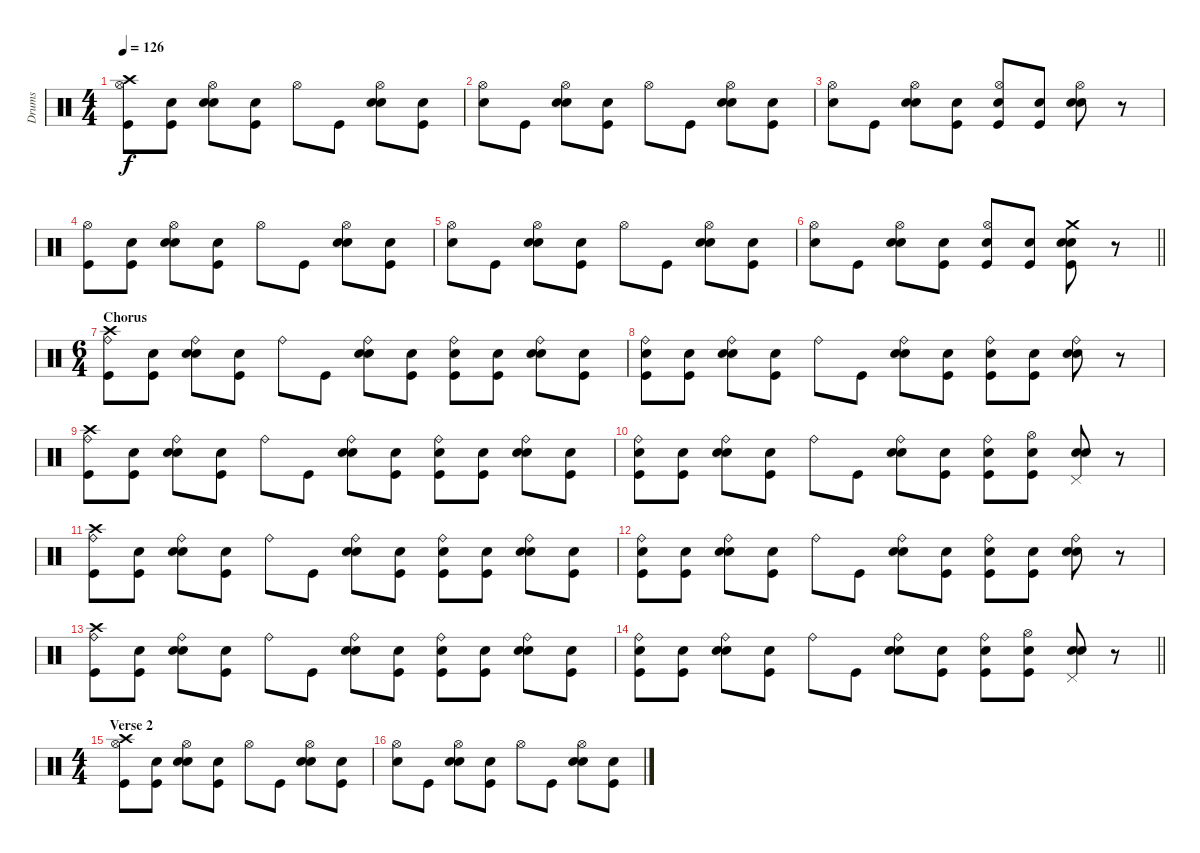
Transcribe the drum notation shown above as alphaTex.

\track ("Drums" "Drums") {instrument percussion}
\staff {score}
\articulation defaults
\ts (4 4)
\tempo 126
\clef neutral
\ks c
("Kick (hit)" "Hi-Hat (open)" "Crash high (hit)").8{dy f} ("Snare (hit)" "Kick (hit)").8 ("Snare (hit)" "Electric Snare (hit)" "Hi-Hat (open)").8 ("Snare (hit)" "Kick (hit)").8 "Hi-Hat (open)".8 "Kick (hit)".8 ("Snare (hit)" "Hi-Hat (open)" "Electric Snare (hit)").8 ("Snare (hit)" "Kick (hit)").8 |
("Snare (hit)" "Hi-Hat (open)").8 "Kick (hit)".8 ("Snare (hit)" "Electric Snare (hit)" "Hi-Hat (open)").8 ("Snare (hit)" "Kick (hit)").8 "Hi-Hat (open)".8 "Kick (hit)".8 ("Snare (hit)" "Electric Snare (hit)" "Hi-Hat (open)").8 ("Snare (hit)" "Kick (hit)").8 |
("Snare (hit)" "Hi-Hat (open)").8 "Kick (hit)".8 ("Snare (hit)" "Hi-Hat (open)" "Electric Snare (hit)").8 ("Snare (hit)" "Kick (hit)").8 ("Snare (hit)" "Hi-Hat (open)" "Kick (hit)").8 ("Snare (hit)" "Kick (hit)").8 ("Snare (hit)" "Hi-Hat (open)" "Electric Snare (hit)").8 r.8 |
("Kick (hit)" "Hi-Hat (open)").8 ("Snare (hit)" "Kick (hit)").8 ("Snare (hit)" "Electric Snare (hit)" "Hi-Hat (open)").8 ("Snare (hit)" "Kick (hit)").8 "Hi-Hat (open)".8 "Kick (hit)".8 ("Snare (hit)" "Electric Snare (hit)" "Hi-Hat (open)").8 ("Snare (hit)" "Kick (hit)").8 |
("Snare (hit)" "Hi-Hat (open)").8 "Kick (hit)".8 ("Snare (hit)" "Hi-Hat (open)" "Electric Snare (hit)").8 ("Snare (hit)" "Kick (hit)").8 "Hi-Hat (open)".8 "Kick (hit)".8 ("Snare (hit)" "Hi-Hat (open)" "Electric Snare (hit)").8 ("Snare (hit)" "Kick (hit)").8 |
\barLineRight lightlight
("Snare (hit)" "Hi-Hat (open)").8 "Kick (hit)".8 ("Snare (hit)" "Hi-Hat (open)" "Electric Snare (hit)").8 ("Snare (hit)" "Kick (hit)").8 ("Snare (hit)" "Hi-Hat (open)" "Kick (hit)").8 ("Snare (hit)" "Kick (hit)").8 ("Snare (hit)" "Electric Snare (hit)" "Kick (hit)" "Crash medium (hit)").8 r.8 |
\ts (6 4)
\section ("" "Chorus")
("Ride (bell)" "Kick (hit)" "Crash high (hit)").8 ("Snare (hit)" "Kick (hit)").8 ("Snare (hit)" "Electric Snare (hit)" "Ride (bell)").8 ("Snare (hit)" "Kick (hit)").8 "Ride (bell)".8 "Kick (hit)".8 ("Snare (hit)" "Ride (bell)" "Electric Snare (hit)").8 ("Snare (hit)" "Kick (hit)").8 ("Snare (hit)" "Kick (hit)" "Ride (bell)").8 ("Snare (hit)" "Kick (hit)").8 ("Snare (hit)" "Electric Snare (hit)" "Ride (bell)").8 ("Snare (hit)" "Kick (hit)").8 |
("Snare (hit)" "Ride (bell)" "Kick (hit)").8 ("Snare (hit)" "Kick (hit)").8 ("Snare (hit)" "Electric Snare (hit)" "Ride (bell)").8 ("Snare (hit)" "Kick (hit)").8 "Ride (bell)".8 "Kick (hit)".8 ("Snare (hit)" "Ride (bell)" "Electric Snare (hit)").8 ("Snare (hit)" "Kick (hit)").8 ("Snare (hit)" "Kick (hit)" "Ride (bell)").8 ("Snare (hit)" "Kick (hit)").8 ("Snare (hit)" "Ride (bell)" "Electric Snare (hit)").8 r.8 |
("Ride (bell)" "Kick (hit)" "Crash high (hit)").8 ("Snare (hit)" "Kick (hit)").8 ("Snare (hit)" "Ride (bell)" "Electric Snare (hit)").8 ("Snare (hit)" "Kick (hit)").8 "Ride (bell)".8 "Kick (hit)".8 ("Snare (hit)" "Electric Snare (hit)" "Ride (bell)").8 ("Snare (hit)" "Kick (hit)").8 ("Snare (hit)" "Kick (hit)" "Ride (bell)").8 ("Snare (hit)" "Kick (hit)").8 ("Snare (hit)" "Electric Snare (hit)" "Ride (bell)").8 ("Snare (hit)" "Kick (hit)").8 |
("Snare (hit)" "Ride (bell)" "Kick (hit)").8 ("Snare (hit)" "Kick (hit)").8 ("Snare (hit)" "Electric Snare (hit)" "Ride (bell)").8 ("Snare (hit)" "Kick (hit)").8 "Ride (bell)".8 "Kick (hit)".8 ("Snare (hit)" "Electric Snare (hit)" "Ride (bell)").8 ("Snare (hit)" "Kick (hit)").8 ("Snare (hit)" "Kick (hit)" "Ride (bell)").8 ("Snare (hit)" "Kick (hit)" "Hi-Hat (open)").8 ("Snare (hit)" "Electric Snare (hit)" "Pedal Hi-Hat (hit)").8 r.8 |
("Ride (bell)" "Kick (hit)" "Crash high (hit)").8 ("Snare (hit)" "Kick (hit)").8 ("Snare (hit)" "Ride (bell)" "Electric Snare (hit)").8 ("Snare (hit)" "Kick (hit)").8 "Ride (bell)".8 "Kick (hit)".8 ("Snare (hit)" "Ride (bell)" "Electric Snare (hit)").8 ("Snare (hit)" "Kick (hit)").8 ("Snare (hit)" "Ride (bell)" "Kick (hit)").8 ("Snare (hit)" "Kick (hit)").8 ("Snare (hit)" "Electric Snare (hit)" "Ride (bell)").8 ("Snare (hit)" "Kick (hit)").8 |
("Snare (hit)" "Ride (bell)" "Kick (hit)").8 ("Snare (hit)" "Kick (hit)").8 ("Snare (hit)" "Ride (bell)" "Electric Snare (hit)").8 ("Snare (hit)" "Kick (hit)").8 "Ride (bell)".8 "Kick (hit)".8 ("Snare (hit)" "Electric Snare (hit)" "Ride (bell)").8 ("Snare (hit)" "Kick (hit)").8 ("Snare (hit)" "Ride (bell)" "Kick (hit)").8 ("Snare (hit)" "Kick (hit)").8 ("Snare (hit)" "Ride (bell)" "Electric Snare (hit)").8 r.8 |
("Ride (bell)" "Kick (hit)" "Crash high (hit)").8 ("Snare (hit)" "Kick (hit)").8 ("Snare (hit)" "Ride (bell)" "Electric Snare (hit)").8 ("Snare (hit)" "Kick (hit)").8 "Ride (bell)".8 "Kick (hit)".8 ("Snare (hit)" "Ride (bell)" "Electric Snare (hit)").8 ("Snare (hit)" "Kick (hit)").8 ("Snare (hit)" "Kick (hit)" "Ride (bell)").8 ("Snare (hit)" "Kick (hit)").8 ("Snare (hit)" "Electric Snare (hit)" "Ride (bell)").8 ("Snare (hit)" "Kick (hit)").8 |
\barLineRight lightlight
("Snare (hit)" "Ride (bell)" "Kick (hit)").8 ("Snare (hit)" "Kick (hit)").8 ("Snare (hit)" "Electric Snare (hit)" "Ride (bell)").8 ("Snare (hit)" "Kick (hit)").8 "Ride (bell)".8 "Kick (hit)".8 ("Snare (hit)" "Ride (bell)" "Electric Snare (hit)").8 ("Snare (hit)" "Kick (hit)").8 ("Snare (hit)" "Ride (bell)" "Kick (hit)").8 ("Snare (hit)" "Kick (hit)" "Hi-Hat (open)").8 ("Snare (hit)" "Electric Snare (hit)" "Pedal Hi-Hat (hit)").8 r.8 |
\ts (4 4)
\section ("" "Verse 2")
("Kick (hit)" "Hi-Hat (open)" "Crash high (hit)").8 ("Snare (hit)" "Kick (hit)").8 ("Snare (hit)" "Hi-Hat (open)" "Electric Snare (hit)").8 ("Snare (hit)" "Kick (hit)").8 "Hi-Hat (open)".8 "Kick (hit)".8 ("Snare (hit)" "Electric Snare (hit)" "Hi-Hat (open)").8 ("Snare (hit)" "Kick (hit)").8 |
("Snare (hit)" "Hi-Hat (open)").8 "Kick (hit)".8 ("Snare (hit)" "Electric Snare (hit)" "Hi-Hat (open)").8 ("Snare (hit)" "Kick (hit)").8 "Hi-Hat (open)".8 "Kick (hit)".8 ("Snare (hit)" "Hi-Hat (open)" "Electric Snare (hit)").8 ("Snare (hit)" "Kick (hit)").8
